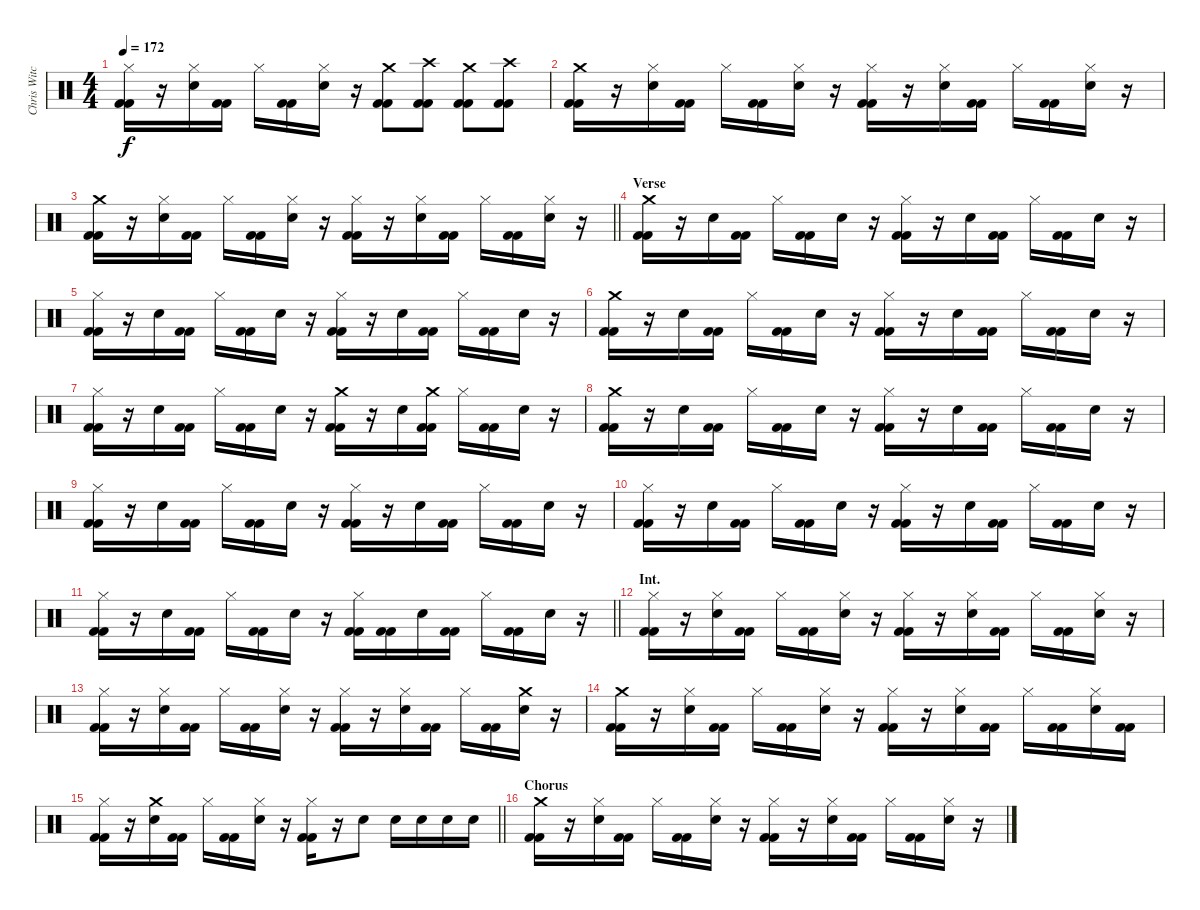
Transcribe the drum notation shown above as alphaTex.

\track ("Chris Witchhunter" "Chris Witc") {instrument percussion}
\staff {score}
\articulation defaults
\ts (4 4)
\tempo 172
\clef neutral
\ks c
("Kick (hit) 2" "Kick (hit) 2" "Hi-Hat (closed)").16{dy f} r.16 ("Snare (hit) 2" "Hi-Hat (closed)").16 ("Kick (hit) 2" "Kick (hit) 2").16 "Hi-Hat (closed)".16 ("Kick (hit) 2" "Kick (hit) 2").16 ("Snare (hit) 2" "Hi-Hat (closed)").16 r.16 ("Kick (hit) 2" "Kick (hit) 2" "Crash medium (hit)").8 ("Kick (hit) 2" "Kick (hit) 2" "Crash high (hit)").8 ("Kick (hit) 2" "Kick (hit) 2" "Crash medium (hit)").8 ("Kick (hit) 2" "Kick (hit) 2" "Crash high (hit)").8 |
("Kick (hit) 2" "Kick (hit) 2" "Crash medium (hit)").16 r.16 ("Snare (hit) 2" "Hi-Hat (closed)").16 ("Kick (hit) 2" "Kick (hit) 2").16 "Hi-Hat (closed)".16 ("Kick (hit) 2" "Kick (hit) 2").16 ("Snare (hit) 2" "Hi-Hat (closed)").16 r.16 ("Kick (hit) 2" "Kick (hit) 2" "Hi-Hat (closed)").16 r.16 ("Snare (hit) 2" "Hi-Hat (closed)").16 ("Kick (hit) 2" "Kick (hit) 2").16 "Hi-Hat (closed)".16 ("Kick (hit) 2" "Kick (hit) 2").16 ("Snare (hit) 2" "Hi-Hat (closed)").16 r.16 |
\barLineRight lightlight
("Kick (hit) 2" "Kick (hit) 2" "Crash medium (hit)").16 r.16 ("Snare (hit) 2" "Hi-Hat (closed)").16 ("Kick (hit) 2" "Kick (hit) 2").16 "Hi-Hat (closed)".16 ("Kick (hit) 2" "Kick (hit) 2").16 ("Snare (hit) 2" "Hi-Hat (closed)").16 r.16 ("Kick (hit) 2" "Kick (hit) 2" "Hi-Hat (closed)").16 r.16 ("Snare (hit) 2" "Hi-Hat (closed)").16 ("Kick (hit) 2" "Kick (hit) 2").16 "Hi-Hat (closed)".16 ("Kick (hit) 2" "Kick (hit) 2").16 ("Snare (hit) 2" "Hi-Hat (closed)").16 r.16 |
\section ("" "Verse")
("Kick (hit) 2" "Kick (hit) 2" "Crash medium (hit)").16 r.16 "Snare (hit) 2".16 ("Kick (hit) 2" "Kick (hit) 2").16 "Hi-Hat (closed)".16 ("Kick (hit) 2" "Kick (hit) 2").16 "Snare (hit) 2".16 r.16 ("Kick (hit) 2" "Kick (hit) 2" "Hi-Hat (closed)").16 r.16 "Snare (hit) 2".16 ("Kick (hit) 2" "Kick (hit) 2").16 "Hi-Hat (closed)".16 ("Kick (hit) 2" "Kick (hit) 2").16 "Snare (hit) 2".16 r.16 |
("Kick (hit) 2" "Kick (hit) 2" "Hi-Hat (closed)").16 r.16 "Snare (hit) 2".16 ("Kick (hit) 2" "Kick (hit) 2").16 "Hi-Hat (closed)".16 ("Kick (hit) 2" "Kick (hit) 2").16 "Snare (hit) 2".16 r.16 ("Kick (hit) 2" "Kick (hit) 2" "Hi-Hat (closed)").16 r.16 "Snare (hit) 2".16 ("Kick (hit) 2" "Kick (hit) 2").16 "Hi-Hat (closed)".16 ("Kick (hit) 2" "Kick (hit) 2").16 "Snare (hit) 2".16 r.16 |
("Kick (hit) 2" "Kick (hit) 2" "Crash medium (hit)").16 r.16 "Snare (hit) 2".16 ("Kick (hit) 2" "Kick (hit) 2").16 "Hi-Hat (closed)".16 ("Kick (hit) 2" "Kick (hit) 2").16 "Snare (hit) 2".16 r.16 ("Kick (hit) 2" "Kick (hit) 2" "Hi-Hat (closed)").16 r.16 "Snare (hit) 2".16 ("Kick (hit) 2" "Kick (hit) 2").16 "Hi-Hat (closed)".16 ("Kick (hit) 2" "Kick (hit) 2").16 "Snare (hit) 2".16 r.16 |
("Kick (hit) 2" "Kick (hit) 2" "Hi-Hat (closed)").16 r.16 "Snare (hit) 2".16 ("Kick (hit) 2" "Kick (hit) 2").16 "Hi-Hat (closed)".16 ("Kick (hit) 2" "Kick (hit) 2").16 "Snare (hit) 2".16 r.16 ("Kick (hit) 2" "Kick (hit) 2" "Crash medium (hit)").16 r.16 "Snare (hit) 2".16 ("Kick (hit) 2" "Kick (hit) 2" "Crash medium (hit)").16 "Hi-Hat (closed)".16 ("Kick (hit) 2" "Kick (hit) 2").16 "Snare (hit) 2".16 r.16 |
("Kick (hit) 2" "Kick (hit) 2" "Crash medium (hit)").16 r.16 "Snare (hit) 2".16 ("Kick (hit) 2" "Kick (hit) 2").16 "Hi-Hat (closed)".16 ("Kick (hit) 2" "Kick (hit) 2").16 "Snare (hit) 2".16 r.16 ("Kick (hit) 2" "Kick (hit) 2" "Hi-Hat (closed)").16 r.16 "Snare (hit) 2".16 ("Kick (hit) 2" "Kick (hit) 2").16 "Hi-Hat (closed)".16 ("Kick (hit) 2" "Kick (hit) 2").16 "Snare (hit) 2".16 r.16 |
("Kick (hit) 2" "Kick (hit) 2" "Hi-Hat (closed)").16 r.16 "Snare (hit) 2".16 ("Kick (hit) 2" "Kick (hit) 2").16 "Hi-Hat (closed)".16 ("Kick (hit) 2" "Kick (hit) 2").16 "Snare (hit) 2".16 r.16 ("Kick (hit) 2" "Kick (hit) 2" "Hi-Hat (closed)").16 r.16 "Snare (hit) 2".16 ("Kick (hit) 2" "Kick (hit) 2").16 "Hi-Hat (closed)".16 ("Kick (hit) 2" "Kick (hit) 2").16 "Snare (hit) 2".16 r.16 |
("Kick (hit) 2" "Kick (hit) 2" "Hi-Hat (closed)").16 r.16 "Snare (hit) 2".16 ("Kick (hit) 2" "Kick (hit) 2").16 "Hi-Hat (closed)".16 ("Kick (hit) 2" "Kick (hit) 2").16 "Snare (hit) 2".16 r.16 ("Kick (hit) 2" "Kick (hit) 2" "Hi-Hat (closed)").16 r.16 "Snare (hit) 2".16 ("Kick (hit) 2" "Kick (hit) 2").16 "Hi-Hat (closed)".16 ("Kick (hit) 2" "Kick (hit) 2").16 "Snare (hit) 2".16 r.16 |
\barLineRight lightlight
("Kick (hit) 2" "Kick (hit) 2" "Hi-Hat (closed)").16 r.16 "Snare (hit) 2".16 ("Kick (hit) 2" "Kick (hit) 2").16 "Hi-Hat (closed)".16 ("Kick (hit) 2" "Kick (hit) 2").16 "Snare (hit) 2".16 r.16 ("Kick (hit) 2" "Kick (hit) 2" "Hi-Hat (closed)").16 ("Kick (hit) 2" "Kick (hit) 2").16 "Snare (hit) 2".16 ("Kick (hit) 2" "Kick (hit) 2").16 "Hi-Hat (closed)".16 ("Kick (hit) 2" "Kick (hit) 2").16 "Snare (hit) 2".16 r.16 |
\section ("" "Int.")
("Kick (hit) 2" "Kick (hit) 2" "Hi-Hat (closed)").16 r.16 ("Snare (hit) 2" "Hi-Hat (closed)").16 ("Kick (hit) 2" "Kick (hit) 2").16 "Hi-Hat (closed)".16 ("Kick (hit) 2" "Kick (hit) 2").16 ("Snare (hit) 2" "Hi-Hat (closed)").16 r.16 ("Kick (hit) 2" "Kick (hit) 2" "Hi-Hat (closed)").16 r.16 ("Snare (hit) 2" "Hi-Hat (closed)").16 ("Kick (hit) 2" "Kick (hit) 2").16 "Hi-Hat (closed)".16 ("Kick (hit) 2" "Kick (hit) 2").16 ("Snare (hit) 2" "Hi-Hat (closed)").16 r.16 |
("Kick (hit) 2" "Kick (hit) 2" "Hi-Hat (closed)").16 r.16 ("Snare (hit) 2" "Hi-Hat (closed)").16 ("Kick (hit) 2" "Kick (hit) 2").16 "Hi-Hat (closed)".16 ("Kick (hit) 2" "Kick (hit) 2").16 ("Snare (hit) 2" "Hi-Hat (closed)").16 r.16 ("Kick (hit) 2" "Kick (hit) 2" "Hi-Hat (closed)").16 r.16 ("Snare (hit) 2" "Hi-Hat (closed)").16 ("Kick (hit) 2" "Kick (hit) 2").16 "Hi-Hat (closed)".16 ("Kick (hit) 2" "Kick (hit) 2").16 ("Snare (hit) 2" "Crash medium (hit)").16 r.16 |
("Kick (hit) 2" "Kick (hit) 2" "Crash medium (hit)").16 r.16 ("Snare (hit) 2" "Hi-Hat (closed)").16 ("Kick (hit) 2" "Kick (hit) 2").16 "Hi-Hat (closed)".16 ("Kick (hit) 2" "Kick (hit) 2").16 ("Snare (hit) 2" "Hi-Hat (closed)").16 r.16 ("Kick (hit) 2" "Kick (hit) 2" "Hi-Hat (closed)").16 r.16 ("Snare (hit) 2" "Hi-Hat (closed)").16 ("Kick (hit) 2" "Kick (hit) 2").16 "Hi-Hat (closed)".16 ("Kick (hit) 2" "Kick (hit) 2").16 ("Snare (hit) 2" "Hi-Hat (closed)").16 ("Kick (hit) 2" "Kick (hit) 2").16 |
\barLineRight lightlight
("Kick (hit) 2" "Kick (hit) 2" "Hi-Hat (closed)").16 r.16 ("Snare (hit) 2" "Crash medium (hit)").16 ("Kick (hit) 2" "Kick (hit) 2").16 "Hi-Hat (closed)".16 ("Kick (hit) 2" "Kick (hit) 2").16 ("Snare (hit) 2" "Hi-Hat (closed)").16 r.16 ("Kick (hit) 2" "Kick (hit) 2" "Hi-Hat (closed)").16 r.16 "Snare (hit) 2".8 "Snare (hit) 2".16 "Snare (hit) 2".16 "Snare (hit) 2".16 "Snare (hit) 2".16 |
\section ("" "Chorus")
("Kick (hit) 2" "Kick (hit) 2" "Crash medium (hit)").16 r.16 ("Snare (hit) 2" "Hi-Hat (closed)").16 ("Kick (hit) 2" "Kick (hit) 2").16 "Hi-Hat (closed)".16 ("Kick (hit) 2" "Kick (hit) 2").16 ("Snare (hit) 2" "Hi-Hat (closed)").16 r.16 ("Kick (hit) 2" "Kick (hit) 2" "Hi-Hat (closed)").16 r.16 ("Snare (hit) 2" "Hi-Hat (closed)").16 ("Kick (hit) 2" "Kick (hit) 2").16 "Hi-Hat (closed)".16 ("Kick (hit) 2" "Kick (hit) 2").16 ("Snare (hit) 2" "Hi-Hat (closed)").16 r.16
